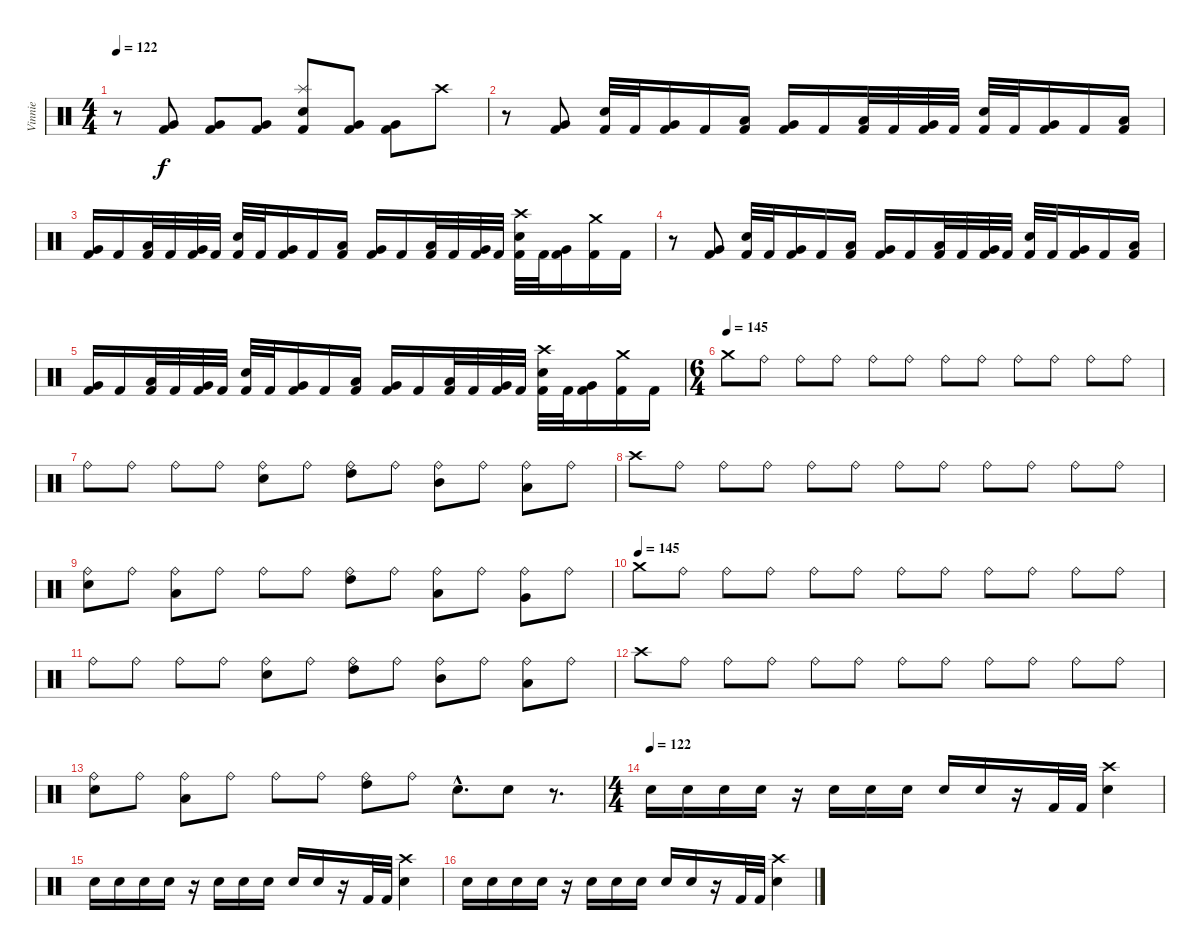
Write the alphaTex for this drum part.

\track ("Vinnie" "Vinnie") {instrument percussion}
\staff {score}
\articulation defaults
\ts (4 4)
\tempo 122
\clef neutral
\ks c
r.8{dy f} ("Very Low Tom (hit)" "Kick (hit) 2").8 ("Very Low Tom (hit)" "Kick (hit) 2").8 ("Very Low Tom (hit)" "Kick (hit) 2").8 ("Splash (hit)" "Snare (hit) 2" "Kick (hit) 2").8 ("Very Low Tom (hit)" "Kick (hit) 2").8 ("Very Low Tom (hit)" "Kick (hit) 2").8 "Crash high (hit)".8 |
r.8 ("Very Low Tom (hit)" "Kick (hit) 2").8 ("Snare (hit) 2" "Kick (hit) 2").32 "Kick (hit) 2".32 ("Very Low Tom (hit)" "Kick (hit) 2").16 "Kick (hit) 2".16 ("Low Tom (hit)" "Kick (hit) 2").16 ("Very Low Tom (hit)" "Kick (hit) 2").16 "Kick (hit) 2".16 ("Low Tom (hit)" "Kick (hit) 2").32 "Kick (hit) 2".32 ("Very Low Tom (hit)" "Kick (hit) 2").32 "Kick (hit) 2".32 ("Snare (hit) 2" "Kick (hit) 2").32 "Kick (hit) 2".32 ("Very Low Tom (hit)" "Kick (hit) 2").16 "Kick (hit) 2".16 ("Low Tom (hit)" "Kick (hit) 2").16 |
("Very Low Tom (hit)" "Kick (hit) 2").16 "Kick (hit) 2".16 ("Low Tom (hit)" "Kick (hit) 2").32 "Kick (hit) 2".32 ("Very Low Tom (hit)" "Kick (hit) 2").32 "Kick (hit) 2".32 ("Snare (hit) 2" "Kick (hit) 2").32 "Kick (hit) 2".32 ("Very Low Tom (hit)" "Kick (hit) 2").16 "Kick (hit) 2".16 ("Low Tom (hit)" "Kick (hit) 2").16 ("Very Low Tom (hit)" "Kick (hit) 2").16 "Kick (hit) 2".16 ("Low Tom (hit)" "Kick (hit) 2").32 "Kick (hit) 2".32 ("Very Low Tom (hit)" "Kick (hit) 2").32 "Kick (hit) 2".32 ("Crash high (hit)" "Snare (hit) 2" "Kick (hit) 2").32 "Kick (hit) 2".32 ("Very Low Tom (hit)" "Kick (hit) 2").16 ("Crash medium (hit)" "Kick (hit) 2").16 "Kick (hit) 2".16 |
r.8 ("Very Low Tom (hit)" "Kick (hit) 2").8 ("Snare (hit) 2" "Kick (hit) 2").32 "Kick (hit) 2".32 ("Very Low Tom (hit)" "Kick (hit) 2").16 "Kick (hit) 2".16 ("Low Tom (hit)" "Kick (hit) 2").16 ("Very Low Tom (hit)" "Kick (hit) 2").16 "Kick (hit) 2".16 ("Low Tom (hit)" "Kick (hit) 2").32 "Kick (hit) 2".32 ("Very Low Tom (hit)" "Kick (hit) 2").32 "Kick (hit) 2".32 ("Snare (hit) 2" "Kick (hit) 2").32 "Kick (hit) 2".32 ("Very Low Tom (hit)" "Kick (hit) 2").16 "Kick (hit) 2".16 ("Low Tom (hit)" "Kick (hit) 2").16 |
("Very Low Tom (hit)" "Kick (hit) 2").16 "Kick (hit) 2".16 ("Low Tom (hit)" "Kick (hit) 2").32 "Kick (hit) 2".32 ("Very Low Tom (hit)" "Kick (hit) 2").32 "Kick (hit) 2".32 ("Snare (hit) 2" "Kick (hit) 2").32 "Kick (hit) 2".32 ("Very Low Tom (hit)" "Kick (hit) 2").16 "Kick (hit) 2".16 ("Low Tom (hit)" "Kick (hit) 2").16 ("Very Low Tom (hit)" "Kick (hit) 2").16 "Kick (hit) 2".16 ("Low Tom (hit)" "Kick (hit) 2").32 "Kick (hit) 2".32 ("Very Low Tom (hit)" "Kick (hit) 2").32 "Kick (hit) 2".32 ("Crash high (hit)" "Snare (hit) 2" "Kick (hit) 2").32 "Kick (hit) 2".32 ("Very Low Tom (hit)" "Kick (hit) 2").16 ("Crash medium (hit)" "Kick (hit) 2").16 "Kick (hit) 2".16 |
\ts (6 4)
\tempo (145)
"Crash medium (hit)".8 "Ride (bell)".8 "Ride (bell)".8 "Ride (bell)".8 "Ride (bell)".8 "Ride (bell)".8 "Ride (bell)".8 "Ride (bell)".8 "Ride (bell)".8 "Ride (bell)".8 "Ride (bell)".8 "Ride (bell)".8 |
"Ride (bell)".8 "Ride (bell)".8 "Ride (bell)".8 "Ride (bell)".8 ("Ride (bell)" "Snare (hit) 2").8 "Ride (bell)".8 ("Ride (bell)" "High Tom (hit)").8 "Ride (bell)".8 ("Ride (bell)" "Mid Tom (hit)").8 "Ride (bell)".8 ("Ride (bell)" "Low Tom (hit)").8 "Ride (bell)".8 |
"Crash high (hit)".8 "Ride (bell)".8 "Ride (bell)".8 "Ride (bell)".8 "Ride (bell)".8 "Ride (bell)".8 "Ride (bell)".8 "Ride (bell)".8 "Ride (bell)".8 "Ride (bell)".8 "Ride (bell)".8 "Ride (bell)".8 |
("Ride (bell)" "Snare (hit) 2").8 "Ride (bell)".8 ("Ride (bell)" "Low Tom (hit)").8 "Ride (bell)".8 "Ride (bell)".8 "Ride (bell)".8 ("Ride (bell)" "High Tom (hit)").8 "Ride (bell)".8 ("Ride (bell)" "Low Tom (hit)").8 "Ride (bell)".8 ("Ride (bell)" "Very Low Tom (hit)").8 "Ride (bell)".8 |
\tempo (145)
"Crash medium (hit)".8 "Ride (bell)".8 "Ride (bell)".8 "Ride (bell)".8 "Ride (bell)".8 "Ride (bell)".8 "Ride (bell)".8 "Ride (bell)".8 "Ride (bell)".8 "Ride (bell)".8 "Ride (bell)".8 "Ride (bell)".8 |
"Ride (bell)".8 "Ride (bell)".8 "Ride (bell)".8 "Ride (bell)".8 ("Ride (bell)" "Snare (hit) 2").8 "Ride (bell)".8 ("Ride (bell)" "High Tom (hit)").8 "Ride (bell)".8 ("Ride (bell)" "Mid Tom (hit)").8 "Ride (bell)".8 ("Ride (bell)" "Low Tom (hit)").8 "Ride (bell)".8 |
"Crash high (hit)".8 "Ride (bell)".8 "Ride (bell)".8 "Ride (bell)".8 "Ride (bell)".8 "Ride (bell)".8 "Ride (bell)".8 "Ride (bell)".8 "Ride (bell)".8 "Ride (bell)".8 "Ride (bell)".8 "Ride (bell)".8 |
("Ride (bell)" "Snare (hit) 2").8 "Ride (bell)".8 ("Ride (bell)" "Low Tom (hit)").8 "Ride (bell)".8 "Ride (bell)".8 "Ride (bell)".8 ("Ride (bell)" "High Tom (hit)").8 "Ride (bell)".8 "Snare (hit) 2"{hac}.8{d} "Snare (hit) 2".8 r.8{d} |
\ts (4 4)
\tempo (122)
"Snare (hit) 2".16 "Snare (hit) 2".16 "Snare (hit) 2".16 "Snare (hit) 2".16 r.16 "Snare (hit) 2".16 "Snare (hit) 2".16 "Snare (hit) 2".16 "Snare (hit) 2".16 "Snare (hit) 2".16 r.16 "Kick (hit) 2".32 "Kick (hit) 2".32 ("Crash high (hit)" "Snare (hit) 2").4 |
"Snare (hit) 2".16 "Snare (hit) 2".16 "Snare (hit) 2".16 "Snare (hit) 2".16 r.16 "Snare (hit) 2".16 "Snare (hit) 2".16 "Snare (hit) 2".16 "Snare (hit) 2".16 "Snare (hit) 2".16 r.16 "Kick (hit) 2".32 "Kick (hit) 2".32 ("Crash high (hit)" "Snare (hit) 2").4 |
"Snare (hit) 2".16 "Snare (hit) 2".16 "Snare (hit) 2".16 "Snare (hit) 2".16 r.16 "Snare (hit) 2".16 "Snare (hit) 2".16 "Snare (hit) 2".16 "Snare (hit) 2".16 "Snare (hit) 2".16 r.16 "Kick (hit) 2".32 "Kick (hit) 2".32 ("Crash high (hit)" "Snare (hit) 2").4
